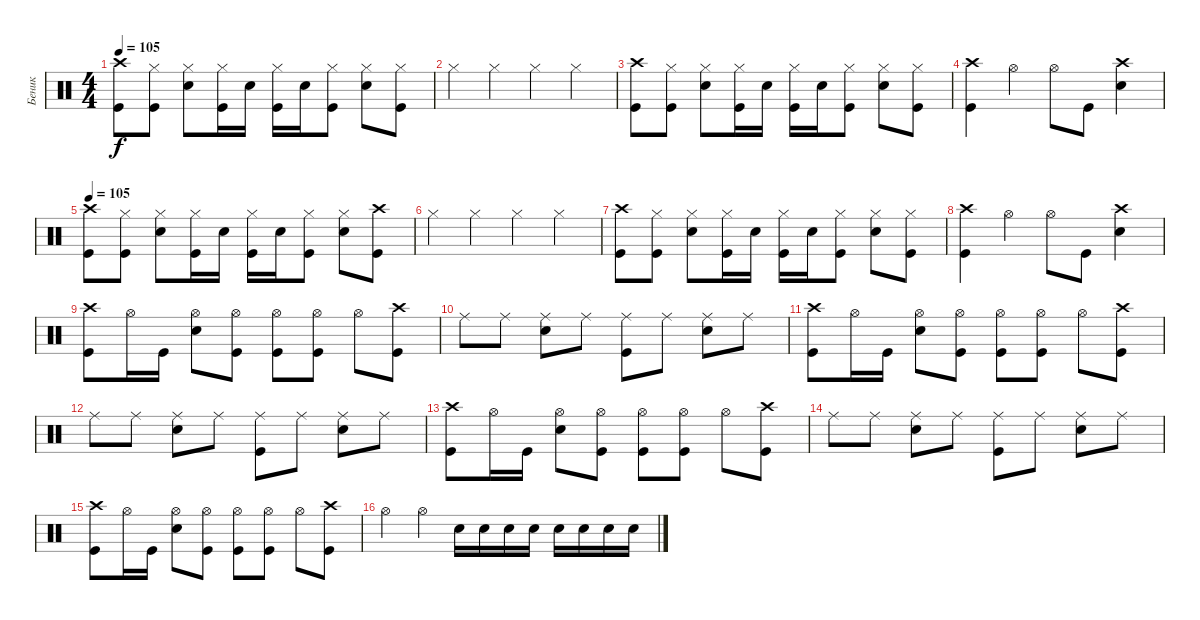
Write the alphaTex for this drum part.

\track ("Беник" "Беник") {instrument percussion}
\staff {score}
\articulation defaults
\ts (4 4)
\tempo 105
\clef neutral
\ks c
("Kick (hit)" "Crash high (hit)").8{dy f} ("Kick (hit)" "Hi-Hat (closed)").8 ("Snare (hit) 2" "Hi-Hat (closed)").8 ("Kick (hit)" "Hi-Hat (closed)").16 "Snare (hit) 2".16 ("Hi-Hat (closed)" "Kick (hit)").16 "Snare (hit) 2".16 ("Hi-Hat (closed)" "Kick (hit)").8 ("Hi-Hat (closed)" "Snare (hit) 2").8 ("Hi-Hat (closed)" "Kick (hit)").8 |
"Hi-Hat (closed)".4 "Hi-Hat (closed)".4 "Hi-Hat (closed)".4 "Hi-Hat (closed)".4 |
("Kick (hit)" "Crash high (hit)").8 ("Kick (hit)" "Hi-Hat (closed)").8 ("Snare (hit) 2" "Hi-Hat (closed)").8 ("Kick (hit)" "Hi-Hat (closed)").16 "Snare (hit) 2".16 ("Hi-Hat (closed)" "Kick (hit)").16 "Snare (hit) 2".16 ("Hi-Hat (closed)" "Kick (hit)").8 ("Hi-Hat (closed)" "Snare (hit) 2").8 ("Hi-Hat (closed)" "Kick (hit)").8 |
("Kick (hit)" "Crash high (hit)").4 "Hi-Hat (open)".4 "Hi-Hat (open)".8 "Kick (hit)".8 ("Crash high (hit)" "Snare (hit) 2").4 |
\tempo 105
("Kick (hit)" "Crash high (hit)").8 ("Kick (hit)" "Hi-Hat (closed)").8 ("Snare (hit) 2" "Hi-Hat (closed)").8 ("Kick (hit)" "Hi-Hat (closed)").16 "Snare (hit) 2".16 ("Hi-Hat (closed)" "Kick (hit)").16 "Snare (hit) 2".16 ("Hi-Hat (closed)" "Kick (hit)").8 ("Hi-Hat (closed)" "Snare (hit) 2").8 ("Crash high (hit)" "Kick (hit)").8 |
"Hi-Hat (closed)".4 "Hi-Hat (closed)".4 "Hi-Hat (closed)".4 "Hi-Hat (closed)".4 |
("Kick (hit)" "Crash high (hit)").8 ("Kick (hit)" "Hi-Hat (closed)").8 ("Snare (hit) 2" "Hi-Hat (closed)").8 ("Kick (hit)" "Hi-Hat (closed)").16 "Snare (hit) 2".16 ("Hi-Hat (closed)" "Kick (hit)").16 "Snare (hit) 2".16 ("Hi-Hat (closed)" "Kick (hit)").8 ("Hi-Hat (closed)" "Snare (hit) 2").8 ("Hi-Hat (closed)" "Kick (hit)").8 |
("Kick (hit)" "Crash high (hit)").4 "Hi-Hat (open)".4 "Hi-Hat (open)".8 "Kick (hit)".8 ("Crash high (hit)" "Snare (hit) 2").4 |
("Crash high (hit)" "Kick (hit)").8 "Hi-Hat (open)".16 "Kick (hit)".16 ("Hi-Hat (open)" "Snare (hit) 2").8 ("Hi-Hat (open)" "Kick (hit)").8 ("Hi-Hat (open)" "Kick (hit)").8 ("Hi-Hat (open)" "Kick (hit)").8 "Hi-Hat (open)".8 ("Kick (hit)" "Crash high (hit)").8 |
"Ride (middle)".8 "Ride (middle)".8 ("Ride (middle)" "Snare (hit) 2").8 "Ride (middle)".8 ("Ride (middle)" "Kick (hit)").8 "Ride (middle)".8 ("Ride (middle)" "Snare (hit) 2").8 "Ride (middle)".8 |
("Crash high (hit)" "Kick (hit)").8 "Hi-Hat (open)".16 "Kick (hit)".16 ("Hi-Hat (open)" "Snare (hit) 2").8 ("Hi-Hat (open)" "Kick (hit)").8 ("Hi-Hat (open)" "Kick (hit)").8 ("Hi-Hat (open)" "Kick (hit)").8 "Hi-Hat (open)".8 ("Kick (hit)" "Crash high (hit)").8 |
"Ride (middle)".8 "Ride (middle)".8 ("Ride (middle)" "Snare (hit) 2").8 "Ride (middle)".8 ("Ride (middle)" "Kick (hit)").8 "Ride (middle)".8 ("Ride (middle)" "Snare (hit) 2").8 "Ride (middle)".8 |
("Crash high (hit)" "Kick (hit)").8 "Hi-Hat (open)".16 "Kick (hit)".16 ("Hi-Hat (open)" "Snare (hit) 2").8 ("Hi-Hat (open)" "Kick (hit)").8 ("Hi-Hat (open)" "Kick (hit)").8 ("Hi-Hat (open)" "Kick (hit)").8 "Hi-Hat (open)".8 ("Kick (hit)" "Crash high (hit)").8 |
"Ride (middle)".8 "Ride (middle)".8 ("Ride (middle)" "Snare (hit) 2").8 "Ride (middle)".8 ("Ride (middle)" "Kick (hit)").8 "Ride (middle)".8 ("Ride (middle)" "Snare (hit) 2").8 "Ride (middle)".8 |
("Crash high (hit)" "Kick (hit)").8 "Hi-Hat (open)".16 "Kick (hit)".16 ("Hi-Hat (open)" "Snare (hit) 2").8 ("Hi-Hat (open)" "Kick (hit)").8 ("Hi-Hat (open)" "Kick (hit)").8 ("Hi-Hat (open)" "Kick (hit)").8 "Hi-Hat (open)".8 ("Kick (hit)" "Crash high (hit)").8 |
"Hi-Hat (open)".4 "Hi-Hat (open)".4 "Snare (hit) 2".16 "Snare (hit) 2".16 "Snare (hit) 2".16 "Snare (hit) 2".16 "Snare (hit) 2".16 "Snare (hit) 2".16 "Snare (hit) 2".16 "Snare (hit) 2".16
